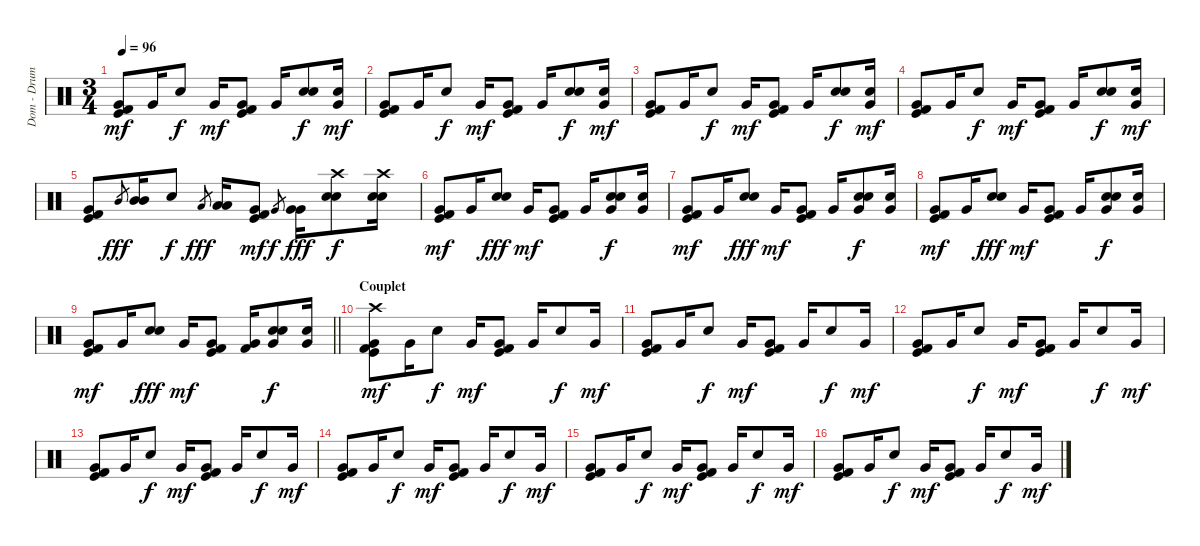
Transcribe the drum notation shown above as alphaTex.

\track ("Dom - Drums" "Dom - Drum") {instrument percussion}
\staff {score}
\articulation defaults
\ts (3 4)
\tempo 96
\clef neutral
\ks c
("Very Low Tom (hit)" "Kick (hit)" "Kick (hit) 2").8{dy mf} "Very Low Tom (hit)".16 "Snare (hit) 2".8{dy f} "Very Low Tom (hit)".16{dy mf} ("Very Low Tom (hit)" "Kick (hit)" "Kick (hit) 2").8 "Very Low Tom (hit)".16 ("Snare (hit) 2" "Hand Clap (hit)").8{dy f} ("Very Low Tom (hit)" "Hand Clap (hit)").16{dy mf} |
("Very Low Tom (hit)" "Kick (hit)" "Kick (hit) 2").8 "Very Low Tom (hit)".16 "Snare (hit) 2".8{dy f} "Very Low Tom (hit)".16{dy mf} ("Very Low Tom (hit)" "Kick (hit)" "Kick (hit) 2").8 "Very Low Tom (hit)".16 ("Snare (hit) 2" "Hand Clap (hit)").8{dy f} ("Very Low Tom (hit)" "Hand Clap (hit)").16{dy mf} |
("Very Low Tom (hit)" "Kick (hit)" "Kick (hit) 2").8 "Very Low Tom (hit)".16 "Snare (hit) 2".8{dy f} "Very Low Tom (hit)".16{dy mf} ("Very Low Tom (hit)" "Kick (hit)" "Kick (hit) 2").8 "Very Low Tom (hit)".16 ("Snare (hit) 2" "Hand Clap (hit)").8{dy f} ("Very Low Tom (hit)" "Hand Clap (hit)").16{dy mf} |
("Very Low Tom (hit)" "Kick (hit)" "Kick (hit) 2").8 "Very Low Tom (hit)".16 "Snare (hit) 2".8{dy f} "Very Low Tom (hit)".16{dy mf} ("Very Low Tom (hit)" "Kick (hit)" "Kick (hit) 2").8 "Very Low Tom (hit)".16 ("Snare (hit) 2" "Hand Clap (hit)").8{dy f} ("Very Low Tom (hit)" "Hand Clap (hit)").16{dy mf} |
("Very Low Tom (hit)" "Kick (hit)" "Kick (hit) 2").8 "Mid Tom (hit)".8{gr dy fff} ("Mid Tom (hit)" "Mid Tom (hit)").16 "Snare (hit) 2".8{dy f} "Low Tom (hit)".8{gr dy fff} ("Low Tom (hit)" "Low Tom (hit)").16 ("Very Low Tom (hit)" "Kick (hit)" "Kick (hit) 2").8{dy mf} "Very Low Tom (hit)".8{gr dy f} ("Very Low Tom (hit)" "Very Low Tom (hit)").16{dy fff} ("Crash high (hit)" "Snare (hit) 2" "Hand Clap (hit)").8{dy f} ("Crash high (hit)" "Snare (hit) 2" "Hand Clap (hit)").16 |
("Very Low Tom (hit)" "Kick (hit)" "Kick (hit) 2").8{dy mf} "Very Low Tom (hit)".16 ("Electric Snare (hit)" "Snare (hit) 2").8{dy fff} "Very Low Tom (hit)".16{dy mf} ("Very Low Tom (hit)" "Kick (hit)" "Kick (hit) 2").8 "Very Low Tom (hit)".16 ("Very Low Tom (hit)" "Snare (hit) 2" "Hand Clap (hit)").8{dy f} ("Very Low Tom (hit)" "Hand Clap (hit)").16 |
("Very Low Tom (hit)" "Kick (hit)" "Kick (hit) 2").8{dy mf} "Very Low Tom (hit)".16 ("Electric Snare (hit)" "Snare (hit) 2").8{dy fff} "Very Low Tom (hit)".16{dy mf} ("Very Low Tom (hit)" "Kick (hit)" "Kick (hit) 2").8 "Very Low Tom (hit)".16 ("Very Low Tom (hit)" "Snare (hit) 2" "Hand Clap (hit)").8{dy f} ("Very Low Tom (hit)" "Hand Clap (hit)").16 |
("Very Low Tom (hit)" "Kick (hit)" "Kick (hit) 2").8{dy mf} "Very Low Tom (hit)".16 ("Electric Snare (hit)" "Snare (hit) 2").8{dy fff} "Very Low Tom (hit)".16{dy mf} ("Very Low Tom (hit)" "Kick (hit)" "Kick (hit) 2").8 "Very Low Tom (hit)".16 ("Very Low Tom (hit)" "Snare (hit) 2" "Hand Clap (hit)").8{dy f} ("Very Low Tom (hit)" "Hand Clap (hit)").16 |
\barLineRight lightlight
("Very Low Tom (hit)" "Kick (hit)" "Kick (hit) 2").8{dy mf} "Very Low Tom (hit)".16 ("Electric Snare (hit)" "Snare (hit) 2").8{dy fff} "Very Low Tom (hit)".16{dy mf} ("Very Low Tom (hit)" "Kick (hit)" "Kick (hit) 2").8 ("Very Low Tom (hit)" "Kick (hit) 2").16 ("Very Low Tom (hit)" "Snare (hit) 2" "Hand Clap (hit)").8{dy f} ("Very Low Tom (hit)" "Hand Clap (hit)").16 |
\section ("" "Couplet")
("Crash high (hit)" "Very Low Tom (hit)" "Kick (hit)" "Kick (hit) 2").8{dy mf} "Very Low Tom (hit)".16 "Snare (hit) 2".8{dy f} "Very Low Tom (hit)".16{dy mf} ("Very Low Tom (hit)" "Kick (hit)" "Kick (hit) 2").8 "Very Low Tom (hit)".16 "Snare (hit) 2".8{dy f} "Very Low Tom (hit)".16{dy mf} |
("Very Low Tom (hit)" "Kick (hit)" "Kick (hit) 2").8 "Very Low Tom (hit)".16 "Snare (hit) 2".8{dy f} "Very Low Tom (hit)".16{dy mf} ("Very Low Tom (hit)" "Kick (hit)" "Kick (hit) 2").8 "Very Low Tom (hit)".16 "Snare (hit) 2".8{dy f} "Very Low Tom (hit)".16{dy mf} |
("Very Low Tom (hit)" "Kick (hit)" "Kick (hit) 2").8 "Very Low Tom (hit)".16 "Snare (hit) 2".8{dy f} "Very Low Tom (hit)".16{dy mf} ("Very Low Tom (hit)" "Kick (hit)" "Kick (hit) 2").8 "Very Low Tom (hit)".16 "Snare (hit) 2".8{dy f} "Very Low Tom (hit)".16{dy mf} |
("Very Low Tom (hit)" "Kick (hit)" "Kick (hit) 2").8 "Very Low Tom (hit)".16 "Snare (hit) 2".8{dy f} "Very Low Tom (hit)".16{dy mf} ("Very Low Tom (hit)" "Kick (hit)" "Kick (hit) 2").8 "Very Low Tom (hit)".16 "Snare (hit) 2".8{dy f} "Very Low Tom (hit)".16{dy mf} |
("Very Low Tom (hit)" "Kick (hit)" "Kick (hit) 2").8 "Very Low Tom (hit)".16 "Snare (hit) 2".8{dy f} "Very Low Tom (hit)".16{dy mf} ("Very Low Tom (hit)" "Kick (hit)" "Kick (hit) 2").8 "Very Low Tom (hit)".16 "Snare (hit) 2".8{dy f} "Very Low Tom (hit)".16{dy mf} |
("Very Low Tom (hit)" "Kick (hit)" "Kick (hit) 2").8 "Very Low Tom (hit)".16 "Snare (hit) 2".8{dy f} "Very Low Tom (hit)".16{dy mf} ("Very Low Tom (hit)" "Kick (hit)" "Kick (hit) 2").8 "Very Low Tom (hit)".16 "Snare (hit) 2".8{dy f} "Very Low Tom (hit)".16{dy mf} |
("Very Low Tom (hit)" "Kick (hit)" "Kick (hit) 2").8 "Very Low Tom (hit)".16 "Snare (hit) 2".8{dy f} "Very Low Tom (hit)".16{dy mf} ("Very Low Tom (hit)" "Kick (hit)" "Kick (hit) 2").8 "Very Low Tom (hit)".16 "Snare (hit) 2".8{dy f} "Very Low Tom (hit)".16{dy mf}
